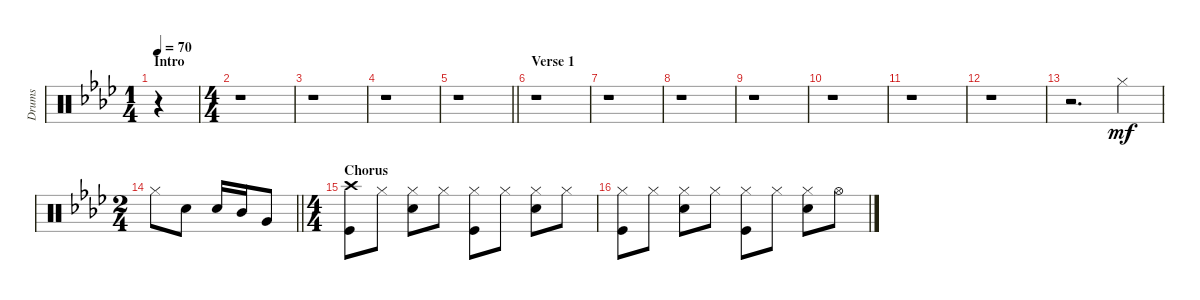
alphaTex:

\track ("Drums" "Drums") {instrument percussion}
\staff {score}
\articulation defaults
\ts (1 4)
\section ("" "Intro")
\tempo 70
\clef neutral
\ks ab
r.4{dy mf} |
\ts (4 4)
r.1 |
r.1 |
r.1 |
\barLineRight lightlight
r.1 |
\section ("" "Verse 1")
r.1 |
r.1 |
r.1 |
r.1 |
r.1 |
r.1 |
r.1 |
r.2{d} "Hi-Hat (closed)".4 |
\ts (2 4)
\barLineRight lightlight "Hi-Hat (closed)".8 "Electric Snare (hit)".8 "Electric Snare (hit)".16 "Mid Tom (hit)".16 "Very Low Tom (hit)".8
|
\ts (4 4)
\section ("" "Chorus")
("Crash high (hit)" "Kick (hit)").8 "Hi-Hat (closed)".8 ("Hi-Hat (closed)" "Electric Snare (hit)").8 "Hi-Hat (closed)".8 ("Hi-Hat (closed)" "Kick (hit)").8 "Hi-Hat (closed)".8 ("Hi-Hat (closed)" "Electric Snare (hit)").8 "Hi-Hat (closed)".8 |
("Hi-Hat (closed)" "Kick (hit)").8 "Hi-Hat (closed)".8 ("Hi-Hat (closed)" "Electric Snare (hit)").8 "Hi-Hat (closed)".8 ("Hi-Hat (closed)" "Kick (hit)").8 "Hi-Hat (closed)".8 ("Hi-Hat (closed)" "Electric Snare (hit)").8 "Hi-Hat (open)".8
